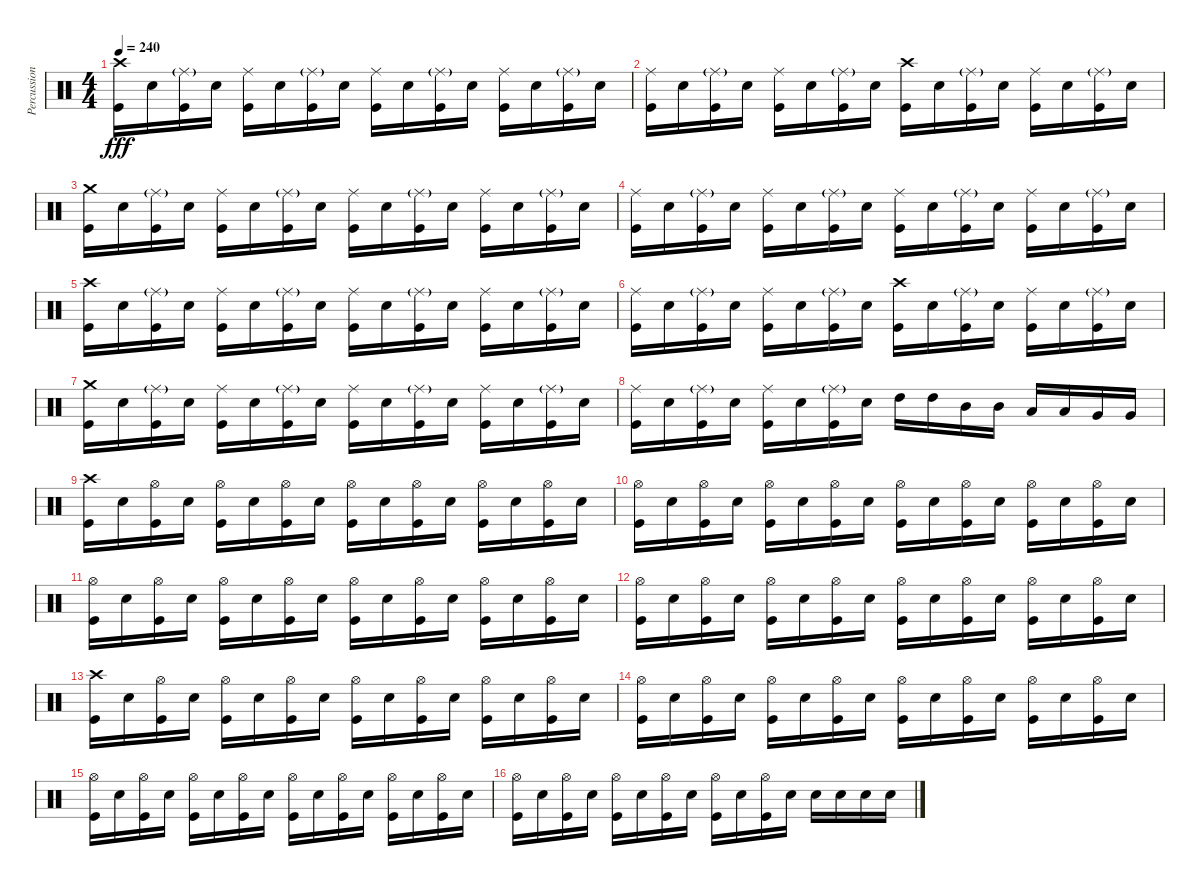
\track ("Percussion" "Percussion") {instrument percussion}
\staff {score}
\articulation defaults
\ts (4 4)
\tempo 240
\clef neutral
\ks c
("Crash high (hit)" "Kick (hit)").16{dy fff} "Snare (hit) 2".16 ("Ride (middle)"{g} "Kick (hit)").16 "Snare (hit) 2".16 ("Ride (middle)" "Kick (hit)").16 "Snare (hit) 2".16 ("Ride (middle)"{g} "Kick (hit)").16 "Snare (hit) 2".16 ("Ride (middle)" "Kick (hit)").16 "Snare (hit) 2".16 ("Ride (middle)"{g} "Kick (hit)").16 "Snare (hit) 2".16 ("Ride (middle)" "Kick (hit)").16 "Snare (hit) 2".16 ("Ride (middle)"{g} "Kick (hit)").16 "Snare (hit) 2".16 |
("Ride (middle)" "Kick (hit)").16 "Snare (hit) 2".16 ("Ride (middle)"{g} "Kick (hit)").16 "Snare (hit) 2".16 ("Ride (middle)" "Kick (hit)").16 "Snare (hit) 2".16 ("Ride (middle)"{g} "Kick (hit)").16 "Snare (hit) 2".16 ("Crash high (hit)" "Kick (hit)").16 "Snare (hit) 2".16 ("Ride (middle)"{g} "Kick (hit)").16 "Snare (hit) 2".16 ("Ride (middle)" "Kick (hit)").16 "Snare (hit) 2".16 ("Ride (middle)"{g} "Kick (hit)").16 "Snare (hit) 2".16 |
("Crash medium (hit)" "Kick (hit)").16 "Snare (hit) 2".16 ("Ride (middle)"{g} "Kick (hit)").16 "Snare (hit) 2".16 ("Ride (middle)" "Kick (hit)").16 "Snare (hit) 2".16 ("Ride (middle)"{g} "Kick (hit)").16 "Snare (hit) 2".16 ("Ride (middle)" "Kick (hit)").16 "Snare (hit) 2".16 ("Ride (middle)"{g} "Kick (hit)").16 "Snare (hit) 2".16 ("Ride (middle)" "Kick (hit)").16 "Snare (hit) 2".16 ("Ride (middle)"{g} "Kick (hit)").16 "Snare (hit) 2".16 |
("Ride (middle)" "Kick (hit)").16 "Snare (hit) 2".16 ("Ride (middle)"{g} "Kick (hit)").16 "Snare (hit) 2".16 ("Ride (middle)" "Kick (hit)").16 "Snare (hit) 2".16 ("Ride (middle)"{g} "Kick (hit)").16 "Snare (hit) 2".16 ("Ride (middle)" "Kick (hit)").16 "Snare (hit) 2".16 ("Ride (middle)"{g} "Kick (hit)").16 "Snare (hit) 2".16 ("Ride (middle)" "Kick (hit)").16 "Snare (hit) 2".16 ("Ride (middle)"{g} "Kick (hit)").16 "Snare (hit) 2".16 |
("Crash high (hit)" "Kick (hit)").16 "Snare (hit) 2".16 ("Ride (middle)"{g} "Kick (hit)").16 "Snare (hit) 2".16 ("Ride (middle)" "Kick (hit)").16 "Snare (hit) 2".16 ("Ride (middle)"{g} "Kick (hit)").16 "Snare (hit) 2".16 ("Ride (middle)" "Kick (hit)").16 "Snare (hit) 2".16 ("Ride (middle)"{g} "Kick (hit)").16 "Snare (hit) 2".16 ("Ride (middle)" "Kick (hit)").16 "Snare (hit) 2".16 ("Ride (middle)"{g} "Kick (hit)").16 "Snare (hit) 2".16 |
("Ride (middle)" "Kick (hit)").16 "Snare (hit) 2".16 ("Ride (middle)"{g} "Kick (hit)").16 "Snare (hit) 2".16 ("Ride (middle)" "Kick (hit)").16 "Snare (hit) 2".16 ("Ride (middle)"{g} "Kick (hit)").16 "Snare (hit) 2".16 ("Crash high (hit)" "Kick (hit)").16 "Snare (hit) 2".16 ("Ride (middle)"{g} "Kick (hit)").16 "Snare (hit) 2".16 ("Ride (middle)" "Kick (hit)").16 "Snare (hit) 2".16 ("Ride (middle)"{g} "Kick (hit)").16 "Snare (hit) 2".16 |
("Crash medium (hit)" "Kick (hit)").16 "Snare (hit) 2".16 ("Ride (middle)"{g} "Kick (hit)").16 "Snare (hit) 2".16 ("Ride (middle)" "Kick (hit)").16 "Snare (hit) 2".16 ("Ride (middle)"{g} "Kick (hit)").16 "Snare (hit) 2".16 ("Ride (middle)" "Kick (hit)").16 "Snare (hit) 2".16 ("Ride (middle)"{g} "Kick (hit)").16 "Snare (hit) 2".16 ("Ride (middle)" "Kick (hit)").16 "Snare (hit) 2".16 ("Ride (middle)"{g} "Kick (hit)").16 "Snare (hit) 2".16 |
("Ride (middle)" "Kick (hit)").16 "Snare (hit) 2".16 ("Ride (middle)"{g} "Kick (hit)").16 "Snare (hit) 2".16 ("Ride (middle)" "Kick (hit)").16 "Snare (hit) 2".16 ("Ride (middle)"{g} "Kick (hit)").16 "Snare (hit) 2".16 "High Tom (hit)".16 "High Tom (hit)".16 "Mid Tom (hit)".16 "Mid Tom (hit)".16 "Low Tom (hit)".16 "Low Tom (hit)".16 "Very Low Tom (hit)".16 "Very Low Tom (hit)".16 |
("Crash high (hit)" "Kick (hit)").16 "Snare (hit) 2".16 ("Hi-Hat (open)" "Kick (hit)").16 "Snare (hit) 2".16 ("Hi-Hat (open)" "Kick (hit)").16 "Snare (hit) 2".16 ("Hi-Hat (open)" "Kick (hit)").16 "Snare (hit) 2".16 ("Hi-Hat (open)" "Kick (hit)").16 "Snare (hit) 2".16 ("Hi-Hat (open)" "Kick (hit)").16 "Snare (hit) 2".16 ("Hi-Hat (open)" "Kick (hit)").16 "Snare (hit) 2".16 ("Hi-Hat (open)" "Kick (hit)").16 "Snare (hit) 2".16 |
("Hi-Hat (open)" "Kick (hit)").16 "Snare (hit) 2".16 ("Hi-Hat (open)" "Kick (hit)").16 "Snare (hit) 2".16 ("Hi-Hat (open)" "Kick (hit)").16 "Snare (hit) 2".16 ("Hi-Hat (open)" "Kick (hit)").16 "Snare (hit) 2".16 ("Hi-Hat (open)" "Kick (hit)").16 "Snare (hit) 2".16 ("Hi-Hat (open)" "Kick (hit)").16 "Snare (hit) 2".16 ("Hi-Hat (open)" "Kick (hit)").16 "Snare (hit) 2".16 ("Hi-Hat (open)" "Kick (hit)").16 "Snare (hit) 2".16 |
("Hi-Hat (open)" "Kick (hit)").16 "Snare (hit) 2".16 ("Hi-Hat (open)" "Kick (hit)").16 "Snare (hit) 2".16 ("Hi-Hat (open)" "Kick (hit)").16 "Snare (hit) 2".16 ("Hi-Hat (open)" "Kick (hit)").16 "Snare (hit) 2".16 ("Hi-Hat (open)" "Kick (hit)").16 "Snare (hit) 2".16 ("Hi-Hat (open)" "Kick (hit)").16 "Snare (hit) 2".16 ("Hi-Hat (open)" "Kick (hit)").16 "Snare (hit) 2".16 ("Hi-Hat (open)" "Kick (hit)").16 "Snare (hit) 2".16 |
("Hi-Hat (open)" "Kick (hit)").16 "Snare (hit) 2".16 ("Hi-Hat (open)" "Kick (hit)").16 "Snare (hit) 2".16 ("Hi-Hat (open)" "Kick (hit)").16 "Snare (hit) 2".16 ("Hi-Hat (open)" "Kick (hit)").16 "Snare (hit) 2".16 ("Hi-Hat (open)" "Kick (hit)").16 "Snare (hit) 2".16 ("Hi-Hat (open)" "Kick (hit)").16 "Snare (hit) 2".16 ("Hi-Hat (open)" "Kick (hit)").16 "Snare (hit) 2".16 ("Hi-Hat (open)" "Kick (hit)").16 "Snare (hit) 2".16 |
("Crash high (hit)" "Kick (hit)").16 "Snare (hit) 2".16 ("Hi-Hat (open)" "Kick (hit)").16 "Snare (hit) 2".16 ("Hi-Hat (open)" "Kick (hit)").16 "Snare (hit) 2".16 ("Hi-Hat (open)" "Kick (hit)").16 "Snare (hit) 2".16 ("Hi-Hat (open)" "Kick (hit)").16 "Snare (hit) 2".16 ("Hi-Hat (open)" "Kick (hit)").16 "Snare (hit) 2".16 ("Hi-Hat (open)" "Kick (hit)").16 "Snare (hit) 2".16 ("Hi-Hat (open)" "Kick (hit)").16 "Snare (hit) 2".16 |
("Hi-Hat (open)" "Kick (hit)").16 "Snare (hit) 2".16 ("Hi-Hat (open)" "Kick (hit)").16 "Snare (hit) 2".16 ("Hi-Hat (open)" "Kick (hit)").16 "Snare (hit) 2".16 ("Hi-Hat (open)" "Kick (hit)").16 "Snare (hit) 2".16 ("Hi-Hat (open)" "Kick (hit)").16 "Snare (hit) 2".16 ("Hi-Hat (open)" "Kick (hit)").16 "Snare (hit) 2".16 ("Hi-Hat (open)" "Kick (hit)").16 "Snare (hit) 2".16 ("Hi-Hat (open)" "Kick (hit)").16 "Snare (hit) 2".16 |
("Hi-Hat (open)" "Kick (hit)").16 "Snare (hit) 2".16 ("Hi-Hat (open)" "Kick (hit)").16 "Snare (hit) 2".16 ("Hi-Hat (open)" "Kick (hit)").16 "Snare (hit) 2".16 ("Hi-Hat (open)" "Kick (hit)").16 "Snare (hit) 2".16 ("Hi-Hat (open)" "Kick (hit)").16 "Snare (hit) 2".16 ("Hi-Hat (open)" "Kick (hit)").16 "Snare (hit) 2".16 ("Hi-Hat (open)" "Kick (hit)").16 "Snare (hit) 2".16 ("Hi-Hat (open)" "Kick (hit)").16 "Snare (hit) 2".16 |
("Hi-Hat (open)" "Kick (hit)").16 "Snare (hit) 2".16 ("Hi-Hat (open)" "Kick (hit)").16 "Snare (hit) 2".16 ("Hi-Hat (open)" "Kick (hit)").16 "Snare (hit) 2".16 ("Hi-Hat (open)" "Kick (hit)").16 "Snare (hit) 2".16 ("Hi-Hat (open)" "Kick (hit)").16 "Snare (hit) 2".16 ("Hi-Hat (open)" "Kick (hit)").16 "Snare (hit) 2".16 "Snare (hit) 2".16 "Snare (hit) 2".16 "Snare (hit) 2".16 "Snare (hit) 2".16
